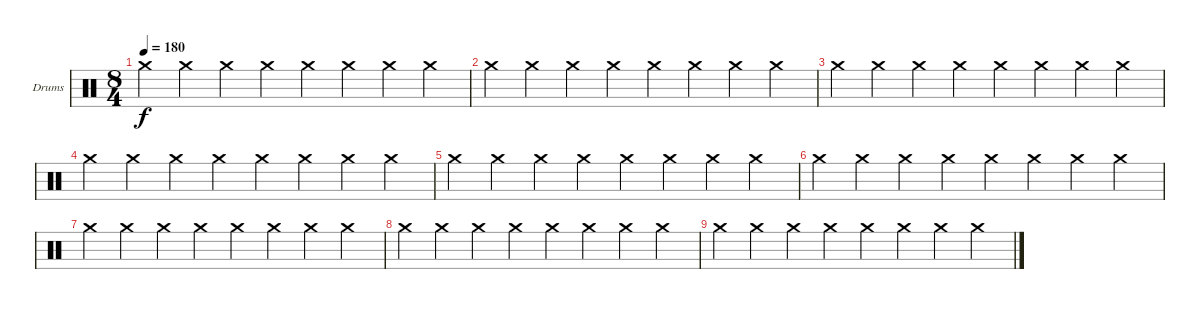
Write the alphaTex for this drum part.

\defaultSystemsLayout 4
\bracketExtendMode groupsimilarinstruments
\firstSystemTrackNameOrientation horizontal
\otherSystemsTrackNameOrientation horizontal
\track ("Drumkit" "Drums") {instrument percussion}
\staff {score}
\articulation defaults
\ts (8 4)
\tempo 180
\clef neutral
\ks c "Crash medium (hit)".4{dy f} "Crash medium (hit)".4 "Crash medium (hit)".4 "Crash medium (hit)".4 "Crash medium (hit)".4 "Crash medium (hit)".4 "Crash medium (hit)".4 "Crash medium (hit)".4
|
"Crash medium (hit)".4 "Crash medium (hit)".4 "Crash medium (hit)".4 "Crash medium (hit)".4 "Crash medium (hit)".4 "Crash medium (hit)".4 "Crash medium (hit)".4 "Crash medium (hit)".4 |
"Crash medium (hit)".4 "Crash medium (hit)".4 "Crash medium (hit)".4 "Crash medium (hit)".4 "Crash medium (hit)".4 "Crash medium (hit)".4 "Crash medium (hit)".4 "Crash medium (hit)".4 |
"Crash medium (hit)".4 "Crash medium (hit)".4 "Crash medium (hit)".4 "Crash medium (hit)".4 "Crash medium (hit)".4 "Crash medium (hit)".4 "Crash medium (hit)".4 "Crash medium (hit)".4 |
"Crash medium (hit)".4 "Crash medium (hit)".4 "Crash medium (hit)".4 "Crash medium (hit)".4 "Crash medium (hit)".4 "Crash medium (hit)".4 "Crash medium (hit)".4 "Crash medium (hit)".4 |
"Crash medium (hit)".4 "Crash medium (hit)".4 "Crash medium (hit)".4 "Crash medium (hit)".4 "Crash medium (hit)".4 "Crash medium (hit)".4 "Crash medium (hit)".4 "Crash medium (hit)".4 |
"Crash medium (hit)".4 "Crash medium (hit)".4 "Crash medium (hit)".4 "Crash medium (hit)".4 "Crash medium (hit)".4 "Crash medium (hit)".4 "Crash medium (hit)".4 "Crash medium (hit)".4 |
"Crash medium (hit)".4 "Crash medium (hit)".4 "Crash medium (hit)".4 "Crash medium (hit)".4 "Crash medium (hit)".4 "Crash medium (hit)".4 "Crash medium (hit)".4 "Crash medium (hit)".4 |
"Crash medium (hit)".4 "Crash medium (hit)".4 "Crash medium (hit)".4 "Crash medium (hit)".4 "Crash medium (hit)".4 "Crash medium (hit)".4 "Crash medium (hit)".4 "Crash medium (hit)".4
